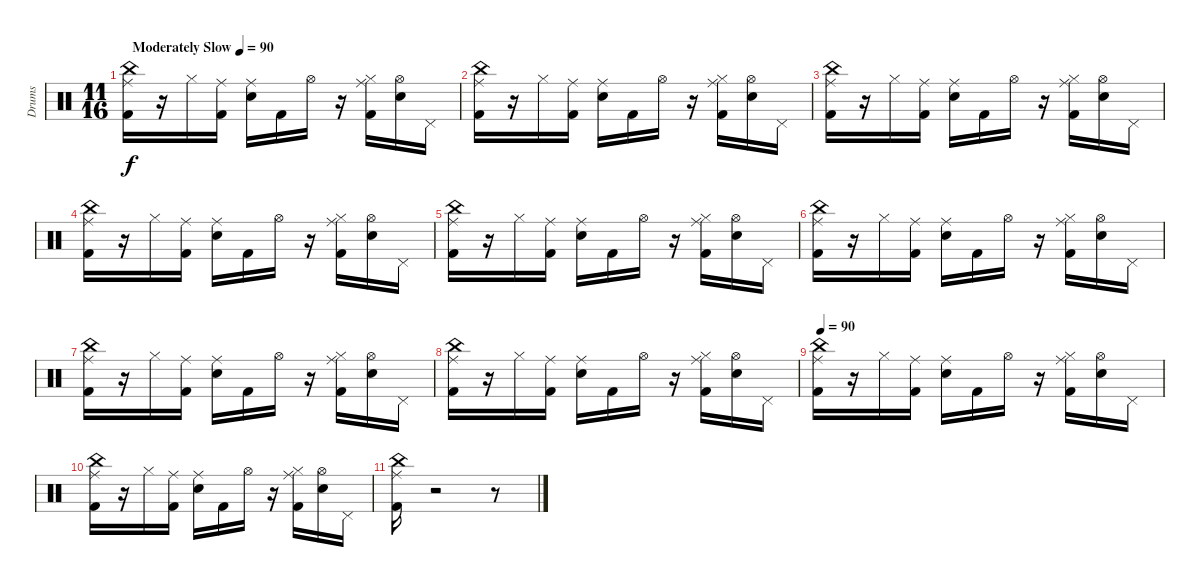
\track ("Drums" "Drums") {instrument percussion}
\staff {score}
\articulation defaults
\ts (11 16)
\section ("" "")
\tempo (90 "Moderately Slow")
\clef neutral
\ks c
("Kick (hit) 2" "Ride (middle)" "China (hit)").16{dy f} r.16 "Hi-Hat (closed)".16 ("Kick (hit) 2" "Ride (middle)").16 ("Electric Snare (hit)" "Ride (middle)").16 "Kick (hit) 2".16 "Hi-Hat (open)".16 r.16 ("Kick (hit) 2" "Hi-Hat (closed)" "Ride (middle)").16 ("Electric Snare (hit)" "Hi-Hat (open)").16 "Pedal Hi-Hat (hit)".16 |
("Kick (hit) 2" "Ride (middle)" "China (hit)").16 r.16 "Hi-Hat (closed)".16 ("Kick (hit) 2" "Ride (middle)").16 ("Electric Snare (hit)" "Ride (middle)").16 "Kick (hit) 2".16 "Hi-Hat (open)".16 r.16 ("Kick (hit) 2" "Hi-Hat (closed)" "Ride (middle)").16 ("Electric Snare (hit)" "Hi-Hat (open)").16 "Pedal Hi-Hat (hit)".16 |
("Kick (hit) 2" "Ride (middle)" "China (hit)").16 r.16 "Hi-Hat (closed)".16 ("Kick (hit) 2" "Ride (middle)").16 ("Electric Snare (hit)" "Ride (middle)").16 "Kick (hit) 2".16 "Hi-Hat (open)".16 r.16 ("Kick (hit) 2" "Hi-Hat (closed)" "Ride (middle)").16 ("Electric Snare (hit)" "Hi-Hat (open)").16 "Pedal Hi-Hat (hit)".16 |
("Kick (hit) 2" "Ride (middle)" "China (hit)").16 r.16 "Hi-Hat (closed)".16 ("Kick (hit) 2" "Ride (middle)").16 ("Electric Snare (hit)" "Ride (middle)").16 "Kick (hit) 2".16 "Hi-Hat (open)".16 r.16 ("Kick (hit) 2" "Hi-Hat (closed)" "Ride (middle)").16 ("Electric Snare (hit)" "Hi-Hat (open)").16 "Pedal Hi-Hat (hit)".16 |
("Kick (hit) 2" "Ride (middle)" "China (hit)").16 r.16 "Hi-Hat (closed)".16 ("Kick (hit) 2" "Ride (middle)").16 ("Electric Snare (hit)" "Ride (middle)").16 "Kick (hit) 2".16 "Hi-Hat (open)".16 r.16 ("Kick (hit) 2" "Hi-Hat (closed)" "Ride (middle)").16 ("Electric Snare (hit)" "Hi-Hat (open)").16 "Pedal Hi-Hat (hit)".16 |
("Kick (hit) 2" "Ride (middle)" "China (hit)").16 r.16 "Hi-Hat (closed)".16 ("Kick (hit) 2" "Ride (middle)").16 ("Electric Snare (hit)" "Ride (middle)").16 "Kick (hit) 2".16 "Hi-Hat (open)".16 r.16 ("Kick (hit) 2" "Hi-Hat (closed)" "Ride (middle)").16 ("Electric Snare (hit)" "Hi-Hat (open)").16 "Pedal Hi-Hat (hit)".16 |
("Kick (hit) 2" "Ride (middle)" "China (hit)").16 r.16 "Hi-Hat (closed)".16 ("Kick (hit) 2" "Ride (middle)").16 ("Electric Snare (hit)" "Ride (middle)").16 "Kick (hit) 2".16 "Hi-Hat (open)".16 r.16 ("Kick (hit) 2" "Hi-Hat (closed)" "Ride (middle)").16 ("Electric Snare (hit)" "Hi-Hat (open)").16 "Pedal Hi-Hat (hit)".16 |
("Kick (hit) 2" "Ride (middle)" "China (hit)").16 r.16 "Hi-Hat (closed)".16 ("Kick (hit) 2" "Ride (middle)").16 ("Electric Snare (hit)" "Ride (middle)").16 "Kick (hit) 2".16 "Hi-Hat (open)".16 r.16 ("Kick (hit) 2" "Hi-Hat (closed)" "Ride (middle)").16 ("Electric Snare (hit)" "Hi-Hat (open)").16 "Pedal Hi-Hat (hit)".16 |
\tempo 90
("Kick (hit) 2" "Ride (middle)" "China (hit)").16 r.16 "Hi-Hat (closed)".16 ("Kick (hit) 2" "Ride (middle)").16 ("Electric Snare (hit)" "Ride (middle)").16 "Kick (hit) 2".16 "Hi-Hat (open)".16 r.16 ("Kick (hit) 2" "Hi-Hat (closed)" "Ride (middle)").16 ("Electric Snare (hit)" "Hi-Hat (open)").16 "Pedal Hi-Hat (hit)".16 |
("Kick (hit) 2" "Ride (middle)" "China (hit)").16 r.16 "Hi-Hat (closed)".16 ("Kick (hit) 2" "Ride (middle)").16 ("Electric Snare (hit)" "Ride (middle)").16 "Kick (hit) 2".16 "Hi-Hat (open)".16 r.16 ("Kick (hit) 2" "Hi-Hat (closed)" "Ride (middle)").16 ("Electric Snare (hit)" "Hi-Hat (open)").16 "Pedal Hi-Hat (hit)".16 |
("Kick (hit) 2" "Ride (middle)" "China (hit)").16 r.2 r.8
